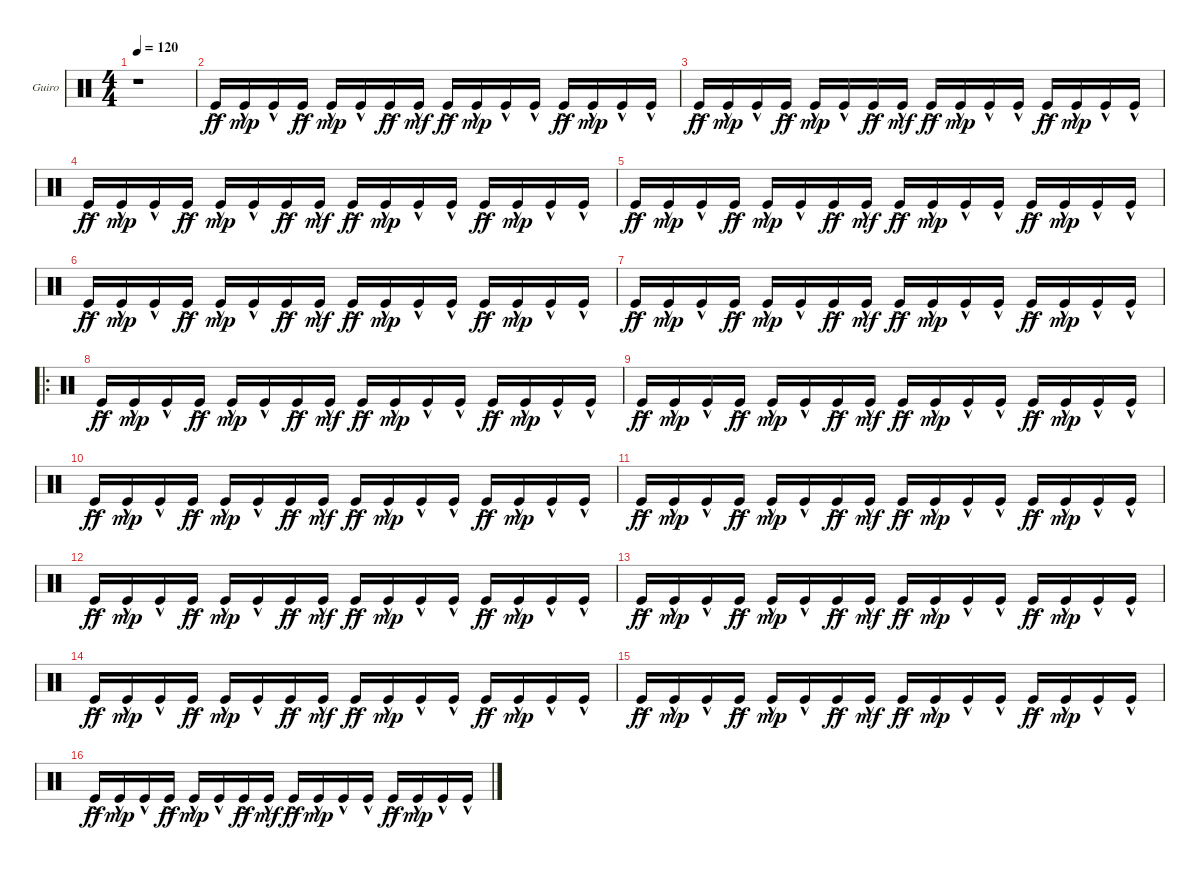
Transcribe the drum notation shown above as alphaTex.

\defaultSystemsLayout 4
\bracketExtendMode groupsimilarinstruments
\firstSystemTrackNameOrientation horizontal
\otherSystemsTrackNameOrientation horizontal
\track ("Guiro" "Guiro") {instrument percussion}
\staff {score}
\articulation defaults
\ts (4 4)
\tempo 120
\clef neutral
\scale
0.472222
\ks c
r.1{dy ff} |
\scale
0.263889 "Kick (hit)"{ac}.16 "Kick (hit)"{hac}.16{dy mp} "Kick (hit)"{hac}.16 "Kick (hit)"{ac}.16{dy ff} "Kick (hit)"{hac}.16{dy mp} "Kick (hit)"{hac}.16 "Kick (hit)"{ac}.16{dy ff} "Kick (hit)"{hac}.16{dy mf} "Kick (hit)"{ac}.16{dy ff} "Kick (hit)"{hac}.16{dy mp} "Kick (hit)"{hac}.16 "Kick (hit)"{hac}.16 "Kick (hit)"{ac}.16{dy ff} "Kick (hit)"{hac}.16{dy mp} "Kick (hit)"{hac}.16 "Kick (hit)"{hac}.16 |
\scale
0.263889 "Kick (hit)"{ac}.16{dy ff} "Kick (hit)"{hac}.16{dy mp} "Kick (hit)"{hac}.16 "Kick (hit)"{ac}.16{dy ff} "Kick (hit)"{hac}.16{dy mp} "Kick (hit)"{hac}.16 "Kick (hit)"{ac}.16{dy ff} "Kick (hit)"{hac}.16{dy mf} "Kick (hit)"{ac}.16{dy ff} "Kick (hit)"{hac}.16{dy mp} "Kick (hit)"{hac}.16 "Kick (hit)"{hac}.16 "Kick (hit)"{ac}.16{dy ff} "Kick (hit)"{hac}.16{dy mp} "Kick (hit)"{hac}.16 "Kick (hit)"{hac}.16 |
\scale
0.333333 "Kick (hit)"{ac}.16{dy ff} "Kick (hit)"{hac}.16{dy mp} "Kick (hit)"{hac}.16 "Kick (hit)"{ac}.16{dy ff} "Kick (hit)"{hac}.16{dy mp} "Kick (hit)"{hac}.16 "Kick (hit)"{ac}.16{dy ff} "Kick (hit)"{hac}.16{dy mf} "Kick (hit)"{ac}.16{dy ff} "Kick (hit)"{hac}.16{dy mp} "Kick (hit)"{hac}.16 "Kick (hit)"{hac}.16 "Kick (hit)"{ac}.16{dy ff} "Kick (hit)"{hac}.16{dy mp} "Kick (hit)"{hac}.16 "Kick (hit)"{hac}.16 |
\scale
0.333333 "Kick (hit)"{ac}.16{dy ff} "Kick (hit)"{hac}.16{dy mp} "Kick (hit)"{hac}.16 "Kick (hit)"{ac}.16{dy ff} "Kick (hit)"{hac}.16{dy mp} "Kick (hit)"{hac}.16 "Kick (hit)"{ac}.16{dy ff} "Kick (hit)"{hac}.16{dy mf} "Kick (hit)"{ac}.16{dy ff} "Kick (hit)"{hac}.16{dy mp} "Kick (hit)"{hac}.16 "Kick (hit)"{hac}.16 "Kick (hit)"{ac}.16{dy ff} "Kick (hit)"{hac}.16{dy mp} "Kick (hit)"{hac}.16 "Kick (hit)"{hac}.16 |
\scale
0.333333 "Kick (hit)"{ac}.16{dy ff} "Kick (hit)"{hac}.16{dy mp} "Kick (hit)"{hac}.16 "Kick (hit)"{ac}.16{dy ff} "Kick (hit)"{hac}.16{dy mp} "Kick (hit)"{hac}.16 "Kick (hit)"{ac}.16{dy ff} "Kick (hit)"{hac}.16{dy mf} "Kick (hit)"{ac}.16{dy ff} "Kick (hit)"{hac}.16{dy mp} "Kick (hit)"{hac}.16 "Kick (hit)"{hac}.16 "Kick (hit)"{ac}.16{dy ff} "Kick (hit)"{hac}.16{dy mp} "Kick (hit)"{hac}.16 "Kick (hit)"{hac}.16 |
\scale
0.311475 "Kick (hit)"{ac}.16{dy ff} "Kick (hit)"{hac}.16{dy mp} "Kick (hit)"{hac}.16 "Kick (hit)"{ac}.16{dy ff} "Kick (hit)"{hac}.16{dy mp} "Kick (hit)"{hac}.16 "Kick (hit)"{ac}.16{dy ff} "Kick (hit)"{hac}.16{dy mf} "Kick (hit)"{ac}.16{dy ff} "Kick (hit)"{hac}.16{dy mp} "Kick (hit)"{hac}.16 "Kick (hit)"{hac}.16 "Kick (hit)"{ac}.16{dy ff} "Kick (hit)"{hac}.16{dy mp} "Kick (hit)"{hac}.16 "Kick (hit)"{hac}.16 |
\ro
\scale
0.377049 "Kick (hit)"{ac}.16{dy ff} "Kick (hit)"{hac}.16{dy mp} "Kick (hit)"{hac}.16 "Kick (hit)"{ac}.16{dy ff} "Kick (hit)"{hac}.16{dy mp} "Kick (hit)"{hac}.16 "Kick (hit)"{ac}.16{dy ff} "Kick (hit)"{hac}.16{dy mf} "Kick (hit)"{ac}.16{dy ff} "Kick (hit)"{hac}.16{dy mp} "Kick (hit)"{hac}.16 "Kick (hit)"{hac}.16 "Kick (hit)"{ac}.16{dy ff} "Kick (hit)"{hac}.16{dy mp} "Kick (hit)"{hac}.16 "Kick (hit)"{hac}.16 |
\scale
0.311475 "Kick (hit)"{ac}.16{dy ff} "Kick (hit)"{hac}.16{dy mp} "Kick (hit)"{hac}.16 "Kick (hit)"{ac}.16{dy ff} "Kick (hit)"{hac}.16{dy mp} "Kick (hit)"{hac}.16 "Kick (hit)"{ac}.16{dy ff} "Kick (hit)"{hac}.16{dy mf} "Kick (hit)"{ac}.16{dy ff} "Kick (hit)"{hac}.16{dy mp} "Kick (hit)"{hac}.16 "Kick (hit)"{hac}.16 "Kick (hit)"{ac}.16{dy ff} "Kick (hit)"{hac}.16{dy mp} "Kick (hit)"{hac}.16 "Kick (hit)"{hac}.16 |
\scale
0.333333 "Kick (hit)"{ac}.16{dy ff} "Kick (hit)"{hac}.16{dy mp} "Kick (hit)"{hac}.16 "Kick (hit)"{ac}.16{dy ff} "Kick (hit)"{hac}.16{dy mp} "Kick (hit)"{hac}.16 "Kick (hit)"{ac}.16{dy ff} "Kick (hit)"{hac}.16{dy mf} "Kick (hit)"{ac}.16{dy ff} "Kick (hit)"{hac}.16{dy mp} "Kick (hit)"{hac}.16 "Kick (hit)"{hac}.16 "Kick (hit)"{ac}.16{dy ff} "Kick (hit)"{hac}.16{dy mp} "Kick (hit)"{hac}.16 "Kick (hit)"{hac}.16 |
\scale
0.333333 "Kick (hit)"{ac}.16{dy ff} "Kick (hit)"{hac}.16{dy mp} "Kick (hit)"{hac}.16 "Kick (hit)"{ac}.16{dy ff} "Kick (hit)"{hac}.16{dy mp} "Kick (hit)"{hac}.16 "Kick (hit)"{ac}.16{dy ff} "Kick (hit)"{hac}.16{dy mf} "Kick (hit)"{ac}.16{dy ff} "Kick (hit)"{hac}.16{dy mp} "Kick (hit)"{hac}.16 "Kick (hit)"{hac}.16 "Kick (hit)"{ac}.16{dy ff} "Kick (hit)"{hac}.16{dy mp} "Kick (hit)"{hac}.16 "Kick (hit)"{hac}.16 |
\scale
0.333333 "Kick (hit)"{ac}.16{dy ff} "Kick (hit)"{hac}.16{dy mp} "Kick (hit)"{hac}.16 "Kick (hit)"{ac}.16{dy ff} "Kick (hit)"{hac}.16{dy mp} "Kick (hit)"{hac}.16 "Kick (hit)"{ac}.16{dy ff} "Kick (hit)"{hac}.16{dy mf} "Kick (hit)"{ac}.16{dy ff} "Kick (hit)"{hac}.16{dy mp} "Kick (hit)"{hac}.16 "Kick (hit)"{hac}.16 "Kick (hit)"{ac}.16{dy ff} "Kick (hit)"{hac}.16{dy mp} "Kick (hit)"{hac}.16 "Kick (hit)"{hac}.16 |
\scale
0.333333 "Kick (hit)"{ac}.16{dy ff} "Kick (hit)"{hac}.16{dy mp} "Kick (hit)"{hac}.16 "Kick (hit)"{ac}.16{dy ff} "Kick (hit)"{hac}.16{dy mp} "Kick (hit)"{hac}.16 "Kick (hit)"{ac}.16{dy ff} "Kick (hit)"{hac}.16{dy mf} "Kick (hit)"{ac}.16{dy ff} "Kick (hit)"{hac}.16{dy mp} "Kick (hit)"{hac}.16 "Kick (hit)"{hac}.16 "Kick (hit)"{ac}.16{dy ff} "Kick (hit)"{hac}.16{dy mp} "Kick (hit)"{hac}.16 "Kick (hit)"{hac}.16 |
\scale
0.333333 "Kick (hit)"{ac}.16{dy ff} "Kick (hit)"{hac}.16{dy mp} "Kick (hit)"{hac}.16 "Kick (hit)"{ac}.16{dy ff} "Kick (hit)"{hac}.16{dy mp} "Kick (hit)"{hac}.16 "Kick (hit)"{ac}.16{dy ff} "Kick (hit)"{hac}.16{dy mf} "Kick (hit)"{ac}.16{dy ff} "Kick (hit)"{hac}.16{dy mp} "Kick (hit)"{hac}.16 "Kick (hit)"{hac}.16 "Kick (hit)"{ac}.16{dy ff} "Kick (hit)"{hac}.16{dy mp} "Kick (hit)"{hac}.16 "Kick (hit)"{hac}.16 |
\scale
0.333333 "Kick (hit)"{ac}.16{dy ff} "Kick (hit)"{hac}.16{dy mp} "Kick (hit)"{hac}.16 "Kick (hit)"{ac}.16{dy ff} "Kick (hit)"{hac}.16{dy mp} "Kick (hit)"{hac}.16 "Kick (hit)"{ac}.16{dy ff} "Kick (hit)"{hac}.16{dy mf} "Kick (hit)"{ac}.16{dy ff} "Kick (hit)"{hac}.16{dy mp} "Kick (hit)"{hac}.16 "Kick (hit)"{hac}.16 "Kick (hit)"{ac}.16{dy ff} "Kick (hit)"{hac}.16{dy mp} "Kick (hit)"{hac}.16 "Kick (hit)"{hac}.16 |
\scale
0.333333 "Kick (hit)"{ac}.16{dy ff} "Kick (hit)"{hac}.16{dy mp} "Kick (hit)"{hac}.16 "Kick (hit)"{ac}.16{dy ff} "Kick (hit)"{hac}.16{dy mp} "Kick (hit)"{hac}.16 "Kick (hit)"{ac}.16{dy ff} "Kick (hit)"{hac}.16{dy mf} "Kick (hit)"{ac}.16{dy ff} "Kick (hit)"{hac}.16{dy mp} "Kick (hit)"{hac}.16 "Kick (hit)"{hac}.16 "Kick (hit)"{ac}.16{dy ff} "Kick (hit)"{hac}.16{dy mp} "Kick (hit)"{hac}.16 "Kick (hit)"{hac}.16
